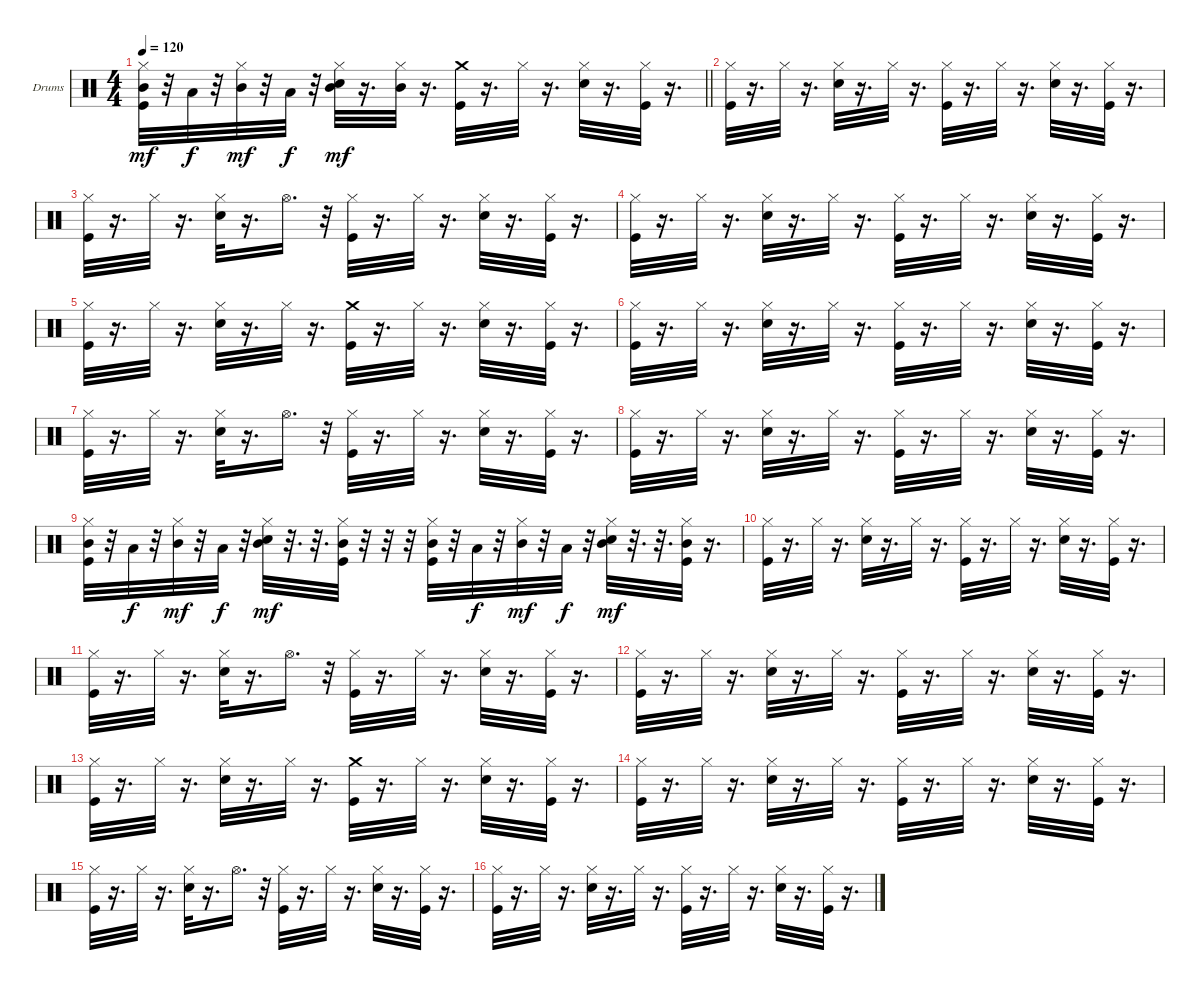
\bracketExtendMode groupsimilarinstruments
\firstSystemTrackNameOrientation horizontal
\otherSystemsTrackNameOrientation horizontal
\track ("Drumkit" "Drums") {instrument percussion}
\staff {score}
\articulation defaults
\ts (4 4)
\tempo 120
\clef neutral
\barLineRight lightlight
\ks c
("Hi-Hat (closed)" "Kick (hit)" "Mid Tom (hit)").32{dy mf} r.32 "Low Tom (hit)".32{dy f} r.32 ("Hi-Hat (closed)" "Mid Tom (hit)").32{dy mf} r.32 "Low Tom (hit)".32{dy f} r.32 ("Hi-Hat (closed)" "Mid Tom (hit)" "Snare (hit) 2").32{dy mf} r.16{d} ("Hi-Hat (closed)" "Mid Tom (hit)").32 r.16{d} ("Crash medium (hit)" "Kick (hit)").32 r.16{d} "Hi-Hat (closed)".32 r.16{d} ("Hi-Hat (closed)" "Snare (hit) 2").32 r.16{d} ("Hi-Hat (closed)" "Kick (hit)").32 r.16{d} |
("Hi-Hat (closed)" "Kick (hit)").32 r.16{d} "Hi-Hat (closed)".32 r.16{d} ("Hi-Hat (closed)" "Snare (hit) 2").32 r.16{d} "Hi-Hat (closed)".32 r.16{d} ("Hi-Hat (closed)" "Kick (hit)").32 r.16{d} "Hi-Hat (closed)".32 r.16{d} ("Hi-Hat (closed)" "Snare (hit) 2").32 r.16{d} ("Hi-Hat (closed)" "Kick (hit)").32 r.16{d} |
("Hi-Hat (closed)" "Kick (hit)").32 r.16{d} "Hi-Hat (closed)".32 r.16{d} ("Hi-Hat (closed)" "Snare (hit) 2").32 r.16{d} "Hi-Hat (open)".16{d} r.32 ("Hi-Hat (closed)" "Kick (hit)").32 r.16{d} "Hi-Hat (closed)".32 r.16{d} ("Hi-Hat (closed)" "Snare (hit) 2").32 r.16{d} ("Hi-Hat (closed)" "Kick (hit)").32 r.16{d} |
("Hi-Hat (closed)" "Kick (hit)").32 r.16{d} "Hi-Hat (closed)".32 r.16{d} ("Hi-Hat (closed)" "Snare (hit) 2").32 r.16{d} "Hi-Hat (closed)".32 r.16{d} ("Hi-Hat (closed)" "Kick (hit)").32 r.16{d} "Hi-Hat (closed)".32 r.16{d} ("Hi-Hat (closed)" "Snare (hit) 2").32 r.16{d} ("Hi-Hat (closed)" "Kick (hit)").32 r.16{d} |
("Hi-Hat (closed)" "Kick (hit)").32 r.16{d} "Hi-Hat (closed)".32 r.16{d} ("Hi-Hat (closed)" "Snare (hit) 2").32 r.16{d} "Hi-Hat (closed)".32 r.16{d} ("Crash medium (hit)" "Kick (hit)").32 r.16{d} "Hi-Hat (closed)".32 r.16{d} ("Hi-Hat (closed)" "Snare (hit) 2").32 r.16{d} ("Hi-Hat (closed)" "Kick (hit)").32 r.16{d} |
("Hi-Hat (closed)" "Kick (hit)").32 r.16{d} "Hi-Hat (closed)".32 r.16{d} ("Hi-Hat (closed)" "Snare (hit) 2").32 r.16{d} "Hi-Hat (closed)".32 r.16{d} ("Hi-Hat (closed)" "Kick (hit)").32 r.16{d} "Hi-Hat (closed)".32 r.16{d} ("Hi-Hat (closed)" "Snare (hit) 2").32 r.16{d} ("Hi-Hat (closed)" "Kick (hit)").32 r.16{d} |
("Hi-Hat (closed)" "Kick (hit)").32 r.16{d} "Hi-Hat (closed)".32 r.16{d} ("Hi-Hat (closed)" "Snare (hit) 2").32 r.16{d} "Hi-Hat (open)".16{d} r.32 ("Hi-Hat (closed)" "Kick (hit)").32 r.16{d} "Hi-Hat (closed)".32 r.16{d} ("Hi-Hat (closed)" "Snare (hit) 2").32 r.16{d} ("Hi-Hat (closed)" "Kick (hit)").32 r.16{d} |
("Hi-Hat (closed)" "Kick (hit)").32 r.16{d} "Hi-Hat (closed)".32 r.16{d} ("Hi-Hat (closed)" "Snare (hit) 2").32 r.16{d} "Hi-Hat (closed)".32 r.16{d} ("Hi-Hat (closed)" "Kick (hit)").32 r.16{d} "Hi-Hat (closed)".32 r.16{d} ("Hi-Hat (closed)" "Snare (hit) 2").32 r.16{d} ("Hi-Hat (closed)" "Kick (hit)").32 r.16{d} |
("Hi-Hat (closed)" "Kick (hit)" "Mid Tom (hit)").32 r.32 "Low Tom (hit)".32{dy f} r.32 ("Hi-Hat (closed)" "Mid Tom (hit)").32{dy mf} r.32 "Low Tom (hit)".32{dy f} r.32 ("Snare (hit) 2" "Hi-Hat (closed)" "Mid Tom (hit)").32{dy mf} r.32{d} r.32{d} ("Hi-Hat (closed)" "Kick (hit)" "Mid Tom (hit)").32 r.32 r.32 r.32 ("Hi-Hat (closed)" "Kick (hit)" "Mid Tom (hit)").32 r.32 "Low Tom (hit)".32{dy f} r.32 ("Hi-Hat (closed)" "Mid Tom (hit)").32{dy mf} r.32 "Low Tom (hit)".32{dy f} r.32 ("Snare (hit) 2" "Hi-Hat (closed)" "Mid Tom (hit)").32{dy mf} r.32{d} r.32{d} ("Hi-Hat (closed)" "Kick (hit)" "Mid Tom (hit)").32 r.16{d} |
("Hi-Hat (closed)" "Kick (hit)").32 r.16{d} "Hi-Hat (closed)".32 r.16{d} ("Hi-Hat (closed)" "Snare (hit) 2").32 r.16{d} "Hi-Hat (closed)".32 r.16{d} ("Hi-Hat (closed)" "Kick (hit)").32 r.16{d} "Hi-Hat (closed)".32 r.16{d} ("Hi-Hat (closed)" "Snare (hit) 2").32 r.16{d} ("Hi-Hat (closed)" "Kick (hit)").32 r.16{d} |
("Hi-Hat (closed)" "Kick (hit)").32 r.16{d} "Hi-Hat (closed)".32 r.16{d} ("Hi-Hat (closed)" "Snare (hit) 2").32 r.16{d} "Hi-Hat (open)".16{d} r.32 ("Hi-Hat (closed)" "Kick (hit)").32 r.16{d} "Hi-Hat (closed)".32 r.16{d} ("Hi-Hat (closed)" "Snare (hit) 2").32 r.16{d} ("Hi-Hat (closed)" "Kick (hit)").32 r.16{d} |
("Hi-Hat (closed)" "Kick (hit)").32 r.16{d} "Hi-Hat (closed)".32 r.16{d} ("Hi-Hat (closed)" "Snare (hit) 2").32 r.16{d} "Hi-Hat (closed)".32 r.16{d} ("Hi-Hat (closed)" "Kick (hit)").32 r.16{d} "Hi-Hat (closed)".32 r.16{d} ("Hi-Hat (closed)" "Snare (hit) 2").32 r.16{d} ("Hi-Hat (closed)" "Kick (hit)").32 r.16{d} |
("Hi-Hat (closed)" "Kick (hit)").32 r.16{d} "Hi-Hat (closed)".32 r.16{d} ("Hi-Hat (closed)" "Snare (hit) 2").32 r.16{d} "Hi-Hat (closed)".32 r.16{d} ("Crash medium (hit)" "Kick (hit)").32 r.16{d} "Hi-Hat (closed)".32 r.16{d} ("Hi-Hat (closed)" "Snare (hit) 2").32 r.16{d} ("Hi-Hat (closed)" "Kick (hit)").32 r.16{d} |
("Hi-Hat (closed)" "Kick (hit)").32 r.16{d} "Hi-Hat (closed)".32 r.16{d} ("Hi-Hat (closed)" "Snare (hit) 2").32 r.16{d} "Hi-Hat (closed)".32 r.16{d} ("Hi-Hat (closed)" "Kick (hit)").32 r.16{d} "Hi-Hat (closed)".32 r.16{d} ("Hi-Hat (closed)" "Snare (hit) 2").32 r.16{d} ("Hi-Hat (closed)" "Kick (hit)").32 r.16{d} |
("Hi-Hat (closed)" "Kick (hit)").32 r.16{d} "Hi-Hat (closed)".32 r.16{d} ("Hi-Hat (closed)" "Snare (hit) 2").32 r.16{d} "Hi-Hat (open)".16{d} r.32 ("Hi-Hat (closed)" "Kick (hit)").32 r.16{d} "Hi-Hat (closed)".32 r.16{d} ("Hi-Hat (closed)" "Snare (hit) 2").32 r.16{d} ("Hi-Hat (closed)" "Kick (hit)").32 r.16{d} |
("Hi-Hat (closed)" "Kick (hit)").32 r.16{d} "Hi-Hat (closed)".32 r.16{d} ("Hi-Hat (closed)" "Snare (hit) 2").32 r.16{d} "Hi-Hat (closed)".32 r.16{d} ("Hi-Hat (closed)" "Kick (hit)").32 r.16{d} "Hi-Hat (closed)".32 r.16{d} ("Hi-Hat (closed)" "Snare (hit) 2").32 r.16{d} ("Hi-Hat (closed)" "Kick (hit)").32 r.16{d}
